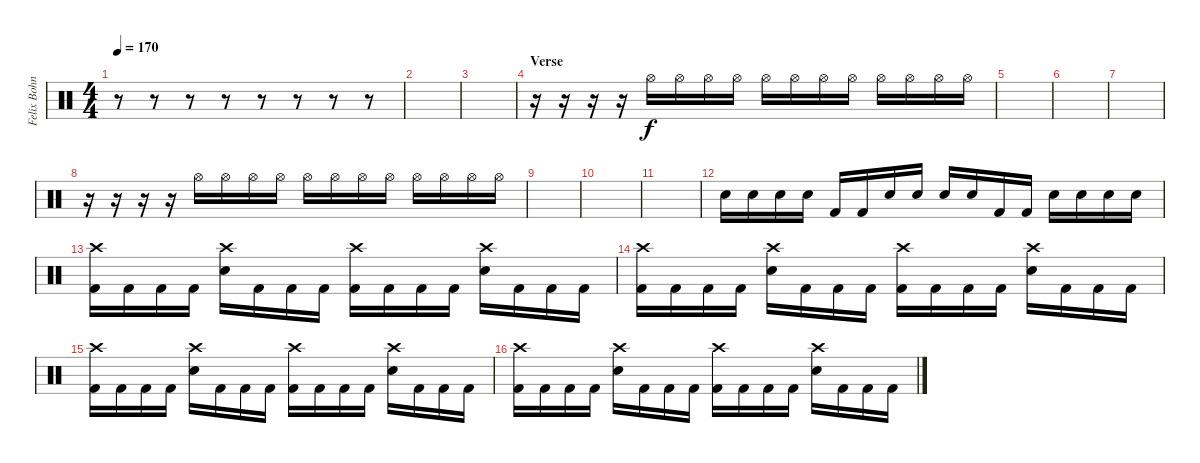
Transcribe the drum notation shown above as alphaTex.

\track ("Felix Bohnke" "Felix Bohn") {instrument percussion}
\staff {score}
\articulation defaults
\ts (4 4)
\tempo 170
\clef neutral
\ks c
r.8{dy f} r.8 r.8 r.8 r.8 r.8 r.8 r.8 |
|
|
\section ("" "Verse")
r.16 r.16 r.16 r.16 "Hi-Hat (open)".16{volume 1} "Hi-Hat (open)".16{volume 3} "Hi-Hat (open)".16{volume 4} "Hi-Hat (open)".16{volume 6} "Hi-Hat (open)".16{volume 7} "Hi-Hat (open)".16{volume 8} "Hi-Hat (open)".16{volume 9} "Hi-Hat (open)".16{volume 10} "Hi-Hat (open)".16{volume 12} "Hi-Hat (open)".16{volume 13} "Hi-Hat (open)".16{volume 14} "Hi-Hat (open)".16{volume 16} |
|
|
|
r.16 r.16 r.16 r.16 "Hi-Hat (open)".16{volume 1} "Hi-Hat (open)".16{volume 3} "Hi-Hat (open)".16{volume 4} "Hi-Hat (open)".16{volume 6} "Hi-Hat (open)".16{volume 7} "Hi-Hat (open)".16{volume 8} "Hi-Hat (open)".16{volume 9} "Hi-Hat (open)".16{volume 10} "Hi-Hat (open)".16{volume 12} "Hi-Hat (open)".16{volume 13} "Hi-Hat (open)".16{volume 14} "Hi-Hat (open)".16{volume 16} |
|
|
|
"Electric Snare (hit)".16 "Electric Snare (hit)".16 "Electric Snare (hit)".16 "Electric Snare (hit)".16 "Kick (hit) 2".16 "Kick (hit) 2".16 "Electric Snare (hit)".16 "Electric Snare (hit)".16 "Electric Snare (hit)".16 "Electric Snare (hit)".16 "Kick (hit) 2".16 "Kick (hit) 2".16 "Electric Snare (hit)".16 "Electric Snare (hit)".16 "Electric Snare (hit)".16 "Electric Snare (hit)".16 |
("Crash high (hit)" "Kick (hit) 2").16 "Kick (hit) 2".16 "Kick (hit) 2".16 "Kick (hit) 2".16 ("Crash high (hit)" "Electric Snare (hit)").16 "Kick (hit) 2".16 "Kick (hit) 2".16 "Kick (hit) 2".16 ("Crash high (hit)" "Kick (hit) 2").16 "Kick (hit) 2".16 "Kick (hit) 2".16 "Kick (hit) 2".16 ("Crash high (hit)" "Electric Snare (hit)").16 "Kick (hit) 2".16 "Kick (hit) 2".16 "Kick (hit) 2".16 |
("Crash high (hit)" "Kick (hit) 2").16 "Kick (hit) 2".16 "Kick (hit) 2".16 "Kick (hit) 2".16 ("Crash high (hit)" "Electric Snare (hit)").16 "Kick (hit) 2".16 "Kick (hit) 2".16 "Kick (hit) 2".16 ("Crash high (hit)" "Kick (hit) 2").16 "Kick (hit) 2".16 "Kick (hit) 2".16 "Kick (hit) 2".16 ("Crash high (hit)" "Electric Snare (hit)").16 "Kick (hit) 2".16 "Kick (hit) 2".16 "Kick (hit) 2".16 |
("Crash high (hit)" "Kick (hit) 2").16 "Kick (hit) 2".16 "Kick (hit) 2".16 "Kick (hit) 2".16 ("Crash high (hit)" "Electric Snare (hit)").16 "Kick (hit) 2".16 "Kick (hit) 2".16 "Kick (hit) 2".16 ("Crash high (hit)" "Kick (hit) 2").16 "Kick (hit) 2".16 "Kick (hit) 2".16 "Kick (hit) 2".16 ("Crash high (hit)" "Electric Snare (hit)").16 "Kick (hit) 2".16 "Kick (hit) 2".16 "Kick (hit) 2".16 |
("Crash high (hit)" "Kick (hit) 2").16 "Kick (hit) 2".16 "Kick (hit) 2".16 "Kick (hit) 2".16 ("Crash high (hit)" "Electric Snare (hit)").16 "Kick (hit) 2".16 "Kick (hit) 2".16 "Kick (hit) 2".16 ("Crash high (hit)" "Kick (hit) 2").16 "Kick (hit) 2".16 "Kick (hit) 2".16 "Kick (hit) 2".16 ("Crash high (hit)" "Electric Snare (hit)").16 "Kick (hit) 2".16 "Kick (hit) 2".16 "Kick (hit) 2".16
